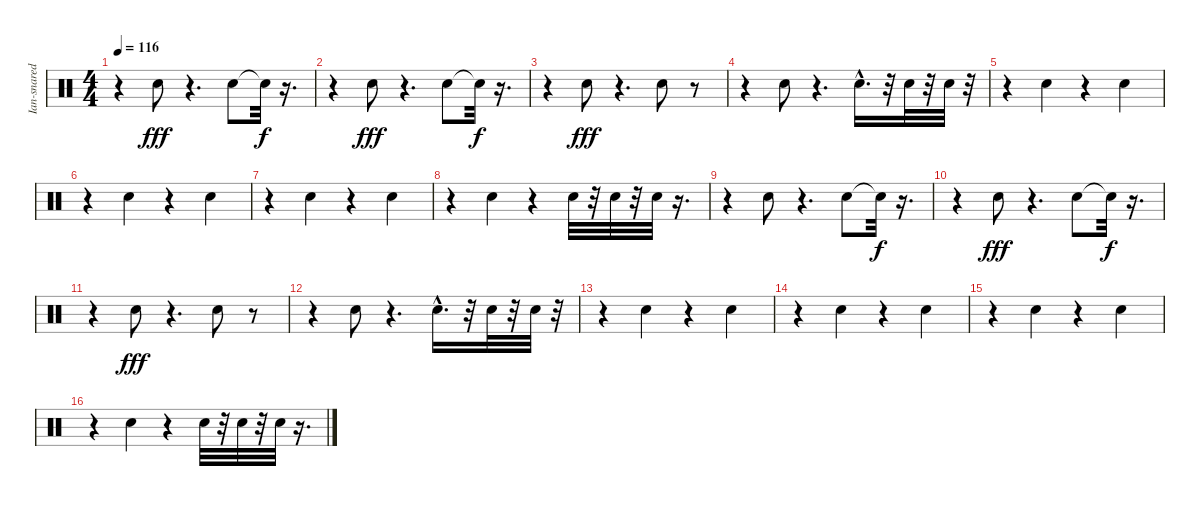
\track ("Ian-snaredrum" "Ian-snared") {instrument percussion}
\staff {score}
\articulation defaults
\ts (4 4)
\tempo 116
\clef neutral
\ks c
r.4{dy fff} "Electric Snare (hit)".8 r.4{d} "Electric Snare (hit)".8 "Snare (hit)"{t}.32{dy f} r.16{d} |
r.4 "Electric Snare (hit)".8{dy fff} r.4{d} "Electric Snare (hit)".8 "Snare (hit)"{t}.32{dy f} r.16{d} |
r.4 "Electric Snare (hit)".8{dy fff} r.4{d} "Electric Snare (hit)".8 r.8 |
r.4 "Electric Snare (hit)".8 r.4{d} "Electric Snare (hit)"{hac}.16{d} r.32 "Electric Snare (hit)".32 r.32 "Electric Snare (hit)".32 r.32 |
r.4 "Electric Snare (hit)".4 r.4 "Electric Snare (hit)".4 |
r.4 "Electric Snare (hit)".4 r.4 "Electric Snare (hit)".4 |
r.4 "Electric Snare (hit)".4 r.4 "Electric Snare (hit)".4 |
r.4 "Electric Snare (hit)".4 r.4 "Electric Snare (hit)".32 r.32 "Electric Snare (hit)".32 r.32 "Electric Snare (hit)".32 r.16{d} |
r.4 "Electric Snare (hit)".8 r.4{d} "Electric Snare (hit)".8 "Snare (hit)"{t}.32{dy f} r.16{d} |
r.4 "Electric Snare (hit)".8{dy fff} r.4{d} "Electric Snare (hit)".8 "Snare (hit)"{t}.32{dy f} r.16{d} |
r.4 "Electric Snare (hit)".8{dy fff volume 16} r.4{d} "Electric Snare (hit)".8{volume 15} r.8 |
r.4 "Electric Snare (hit)".8{volume 14} r.4{d} "Electric Snare (hit)"{hac}.16{d volume 14} r.32 "Electric Snare (hit)".32{volume 14} r.32 "Electric Snare (hit)".32 r.32 |
r.4 "Electric Snare (hit)".4{volume 13} r.4 "Electric Snare (hit)".4{volume 13} |
r.4 "Electric Snare (hit)".4{volume 12} r.4 "Electric Snare (hit)".4{volume 12} |
r.4 "Electric Snare (hit)".4{volume 11} r.4 "Electric Snare (hit)".4{volume 10} |
r.4 "Electric Snare (hit)".4{volume 10} r.4 "Electric Snare (hit)".32{volume 9} r.32 "Electric Snare (hit)".32 r.32 "Electric Snare (hit)".32{volume 9} r.16{d}
